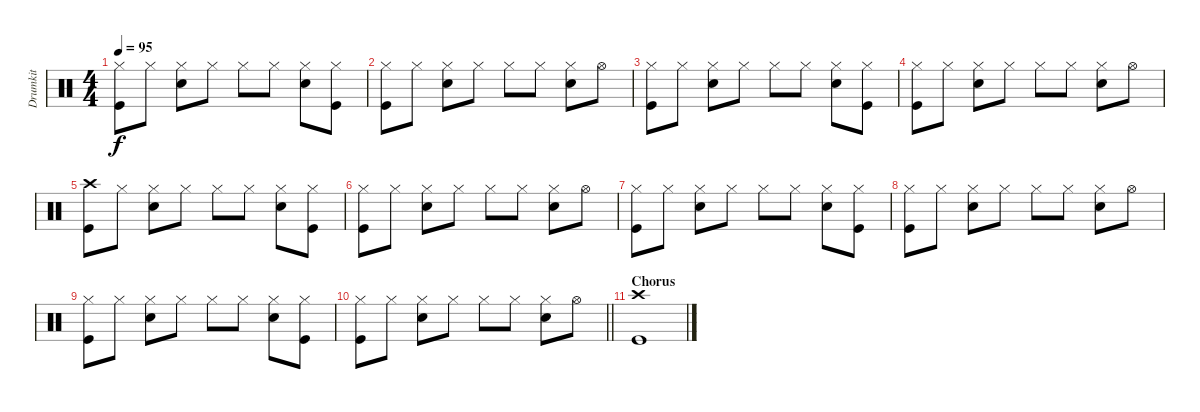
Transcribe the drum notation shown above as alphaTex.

\track ("Drumkit" "Drumkit") {instrument percussion}
\staff {score}
\articulation defaults
\ts (4 4)
\tempo 95
\clef neutral
\ks c
("Kick (hit)" "Hi-Hat (closed)").8{dy f} "Hi-Hat (closed)".8 ("Snare (hit) 2" "Hi-Hat (closed)").8 "Hi-Hat (closed)".8 "Hi-Hat (closed)".8 "Hi-Hat (closed)".8 ("Hi-Hat (closed)" "Snare (hit) 2").8 ("Kick (hit)" "Hi-Hat (closed)").8 |
("Kick (hit)" "Hi-Hat (closed)").8 "Hi-Hat (closed)".8 ("Snare (hit) 2" "Hi-Hat (closed)").8 "Hi-Hat (closed)".8 "Hi-Hat (closed)".8 "Hi-Hat (closed)".8 ("Hi-Hat (closed)" "Snare (hit) 2").8 "Hi-Hat (open)".8 |
("Kick (hit)" "Hi-Hat (closed)").8 "Hi-Hat (closed)".8 ("Snare (hit) 2" "Hi-Hat (closed)").8 "Hi-Hat (closed)".8 "Hi-Hat (closed)".8 "Hi-Hat (closed)".8 ("Hi-Hat (closed)" "Snare (hit) 2").8 ("Kick (hit)" "Hi-Hat (closed)").8 |
("Kick (hit)" "Hi-Hat (closed)").8 "Hi-Hat (closed)".8 ("Snare (hit) 2" "Hi-Hat (closed)").8 "Hi-Hat (closed)".8 "Hi-Hat (closed)".8 "Hi-Hat (closed)".8 ("Hi-Hat (closed)" "Snare (hit) 2").8 "Hi-Hat (open)".8 |
("Kick (hit)" "Crash high (hit)").8 "Hi-Hat (closed)".8 ("Snare (hit) 2" "Hi-Hat (closed)").8 "Hi-Hat (closed)".8 "Hi-Hat (closed)".8 "Hi-Hat (closed)".8 ("Hi-Hat (closed)" "Snare (hit) 2").8 ("Kick (hit)" "Hi-Hat (closed)").8 |
("Kick (hit)" "Hi-Hat (closed)").8 "Hi-Hat (closed)".8 ("Snare (hit) 2" "Hi-Hat (closed)").8 "Hi-Hat (closed)".8 "Hi-Hat (closed)".8 "Hi-Hat (closed)".8 ("Hi-Hat (closed)" "Snare (hit) 2").8 "Hi-Hat (open)".8 |
("Kick (hit)" "Hi-Hat (closed)").8 "Hi-Hat (closed)".8 ("Snare (hit) 2" "Hi-Hat (closed)").8 "Hi-Hat (closed)".8 "Hi-Hat (closed)".8 "Hi-Hat (closed)".8 ("Hi-Hat (closed)" "Snare (hit) 2").8 ("Kick (hit)" "Hi-Hat (closed)").8 |
("Kick (hit)" "Hi-Hat (closed)").8 "Hi-Hat (closed)".8 ("Snare (hit) 2" "Hi-Hat (closed)").8 "Hi-Hat (closed)".8 "Hi-Hat (closed)".8 "Hi-Hat (closed)".8 ("Hi-Hat (closed)" "Snare (hit) 2").8 "Hi-Hat (open)".8 |
("Kick (hit)" "Hi-Hat (closed)").8 "Hi-Hat (closed)".8 ("Snare (hit) 2" "Hi-Hat (closed)").8 "Hi-Hat (closed)".8 "Hi-Hat (closed)".8 "Hi-Hat (closed)".8 ("Hi-Hat (closed)" "Snare (hit) 2").8 ("Kick (hit)" "Hi-Hat (closed)").8 |
\barLineRight lightlight
("Kick (hit)" "Hi-Hat (closed)").8 "Hi-Hat (closed)".8 ("Snare (hit) 2" "Hi-Hat (closed)").8 "Hi-Hat (closed)".8 "Hi-Hat (closed)".8 "Hi-Hat (closed)".8 ("Hi-Hat (closed)" "Snare (hit) 2").8 "Hi-Hat (open)".8 |
\section ("" "Chorus")
("Crash high (hit)" "Kick (hit)").1
